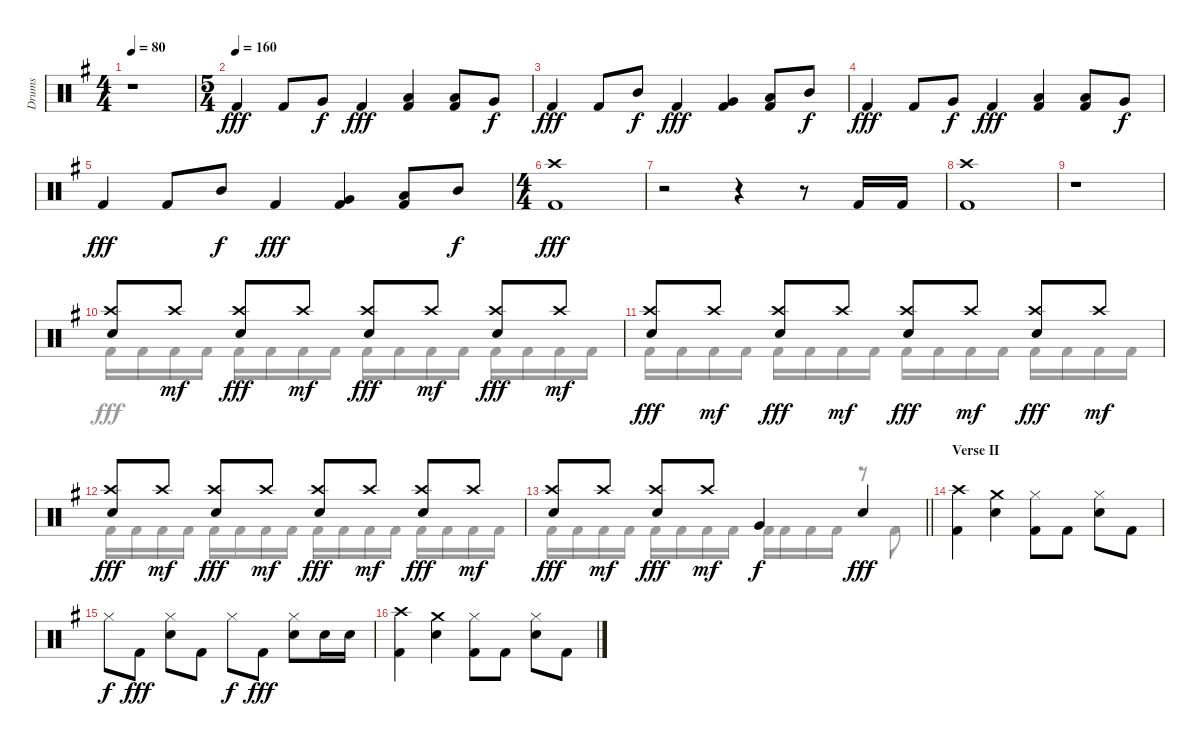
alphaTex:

\track ("Drums" "Drums") {instrument percussion}
\staff {score}
\articulation defaults
\voice
\ts (4 4)
\tempo 80
\clef neutral
\ks g
r.1{dy fff} |
\ts (5 4)
\tempo (160)
"Kick (hit) 2".4{volume 16} "Kick (hit) 2".8 "Very Low Tom (hit)".8{dy f} "Kick (hit) 2".4{dy fff} ("Low Tom (hit)" "Kick (hit) 2").4 ("Low Tom (hit)" "Kick (hit) 2").8 "Very Low Tom (hit)".8{dy f} |
"Kick (hit) 2".4{dy fff} "Kick (hit) 2".8 "Mid Tom (hit)".8{dy f} "Kick (hit) 2".4{dy fff} ("Very Low Tom (hit)" "Kick (hit) 2").4 ("Low Tom (hit)" "Kick (hit) 2").8 "Mid Tom (hit)".8{dy f} |
"Kick (hit) 2".4{dy fff} "Kick (hit) 2".8 "Very Low Tom (hit)".8{dy f} "Kick (hit) 2".4{dy fff} ("Low Tom (hit)" "Kick (hit) 2").4 ("Low Tom (hit)" "Kick (hit) 2").8 "Very Low Tom (hit)".8{dy f} |
"Kick (hit) 2".4{dy fff} "Kick (hit) 2".8 "Mid Tom (hit)".8{dy f} "Kick (hit) 2".4{dy fff} ("Very Low Tom (hit)" "Kick (hit) 2").4 ("Low Tom (hit)" "Kick (hit) 2").8 "Mid Tom (hit)".8{dy f} |
\ts (4 4)
("Crash high (hit)" "Kick (hit) 2").1{dy fff} |
r.2 r.4 r.8 "Kick (hit) 2".16 "Kick (hit) 2".16 |
("Crash high (hit)" "Kick (hit) 2").1 |
r.1 |
("Crash high (hit)" "Snare (hit) 2").8 "Crash high (hit)".8{dy mf} ("Crash high (hit)" "Snare (hit) 2").8{dy fff} "Crash high (hit)".8{dy mf} ("Crash high (hit)" "Snare (hit) 2").8{dy fff} "Crash high (hit)".8{dy mf} ("Crash high (hit)" "Snare (hit) 2").8{dy fff} "Crash high (hit)".8{dy mf} |
("Crash high (hit)" "Snare (hit) 2").8{dy fff} "Crash high (hit)".8{dy mf} ("Crash high (hit)" "Snare (hit) 2").8{dy fff} "Crash high (hit)".8{dy mf} ("Crash high (hit)" "Snare (hit) 2").8{dy fff} "Crash high (hit)".8{dy mf} ("Crash high (hit)" "Snare (hit) 2").8{dy fff} "Crash high (hit)".8{dy mf} |
("Crash high (hit)" "Snare (hit) 2").8{dy fff} "Crash high (hit)".8{dy mf} ("Crash high (hit)" "Snare (hit) 2").8{dy fff} "Crash high (hit)".8{dy mf} ("Crash high (hit)" "Snare (hit) 2").8{dy fff} "Crash high (hit)".8{dy mf} ("Crash high (hit)" "Snare (hit) 2").8{dy fff} "Crash high (hit)".8{dy mf} |
\barLineRight lightlight
("Crash high (hit)" "Snare (hit) 2").8{dy fff} "Crash high (hit)".8{dy mf} ("Crash high (hit)" "Snare (hit) 2").8{dy fff} "Crash high (hit)".8{dy mf} "Very Low Tom (hit)".4{dy f} "Snare (hit) 2".4{dy fff} |
\section ("" "Verse II")
("Crash high (hit)" "Kick (hit) 2").4 ("Crash medium (hit)" "Snare (hit) 2").4 ("Hi-Hat (closed)" "Kick (hit) 2").8 "Kick (hit) 2".8 ("Hi-Hat (closed)" "Snare (hit) 2").8 "Kick (hit) 2".8 |
"Hi-Hat (closed)".8{dy f} "Kick (hit) 2".8{dy fff} ("Hi-Hat (closed)" "Snare (hit) 2").8 "Kick (hit) 2".8 "Hi-Hat (closed)".8{dy f} "Kick (hit) 2".8{dy fff} ("Hi-Hat (closed)" "Snare (hit) 2").8 "Snare (hit) 2".16 "Snare (hit) 2".16 |
("Crash high (hit)" "Kick (hit) 2").4 ("Crash medium (hit)" "Snare (hit) 2").4 ("Hi-Hat (closed)" "Kick (hit) 2").8 "Kick (hit) 2".8 ("Hi-Hat (closed)" "Snare (hit) 2").8 "Kick (hit) 2".8
\voice
\clef neutral
\ottava regular
\simile none
\ks g
|
|
|
|
|
|
|
|
|
"Kick (hit) 2".16 "Kick (hit) 2".16 "Kick (hit) 2".16 "Kick (hit) 2".16 "Kick (hit) 2".16 "Kick (hit) 2".16 "Kick (hit) 2".16 "Kick (hit) 2".16 "Kick (hit) 2".16 "Kick (hit) 2".16 "Kick (hit) 2".16 "Kick (hit) 2".16 "Kick (hit) 2".16 "Kick (hit) 2".16 "Kick (hit) 2".16 "Kick (hit) 2".16 |
"Kick (hit) 2".16 "Kick (hit) 2".16 "Kick (hit) 2".16 "Kick (hit) 2".16 "Kick (hit) 2".16 "Kick (hit) 2".16 "Kick (hit) 2".16 "Kick (hit) 2".16 "Kick (hit) 2".16 "Kick (hit) 2".16 "Kick (hit) 2".16 "Kick (hit) 2".16 "Kick (hit) 2".16 "Kick (hit) 2".16 "Kick (hit) 2".16 "Kick (hit) 2".16 |
"Kick (hit) 2".16 "Kick (hit) 2".16 "Kick (hit) 2".16 "Kick (hit) 2".16 "Kick (hit) 2".16 "Kick (hit) 2".16 "Kick (hit) 2".16 "Kick (hit) 2".16 "Kick (hit) 2".16 "Kick (hit) 2".16 "Kick (hit) 2".16 "Kick (hit) 2".16 "Kick (hit) 2".16 "Kick (hit) 2".16 "Kick (hit) 2".16 "Kick (hit) 2".16 |
\barLineRight lightlight "Kick (hit) 2".16 "Kick (hit) 2".16 "Kick (hit) 2".16 "Kick (hit) 2".16 "Kick (hit) 2".16 "Kick (hit) 2".16 "Kick (hit) 2".16 "Kick (hit) 2".16 "Kick (hit) 2".16 "Kick (hit) 2".16 "Kick (hit) 2".16 "Kick (hit) 2".16
r.8 "Kick (hit) 2".8 |
|
|
